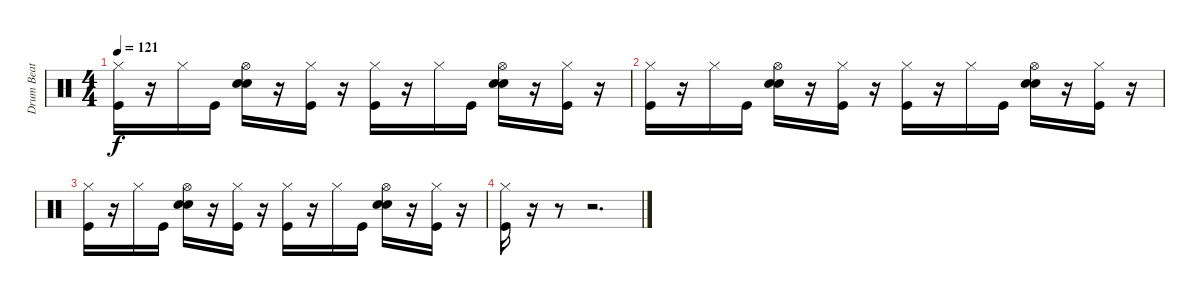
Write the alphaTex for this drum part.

\track ("Drum Beat" "Drum Beat") {instrument percussion}
\staff {score}
\articulation defaults
\ts (4 4)
\tempo 121
\clef neutral
\ks c
("Hi-Hat (closed)" "Kick (hit)").16{dy f} r.16 "Hi-Hat (closed)".16 "Kick (hit)".16 ("Hi-Hat (open)" "Snare (hit) 2" "Hand Clap (hit)").16 r.16 ("Hi-Hat (closed)" "Kick (hit)").16 r.16 ("Hi-Hat (closed)" "Kick (hit)").16 r.16 "Hi-Hat (closed)".16 "Kick (hit)".16 ("Hi-Hat (open)" "Snare (hit) 2" "Hand Clap (hit)").16 r.16 ("Hi-Hat (closed)" "Kick (hit)").16 r.16 |
("Hi-Hat (closed)" "Kick (hit)").16 r.16 "Hi-Hat (closed)".16 "Kick (hit)".16 ("Hi-Hat (open)" "Snare (hit) 2" "Hand Clap (hit)").16 r.16 ("Hi-Hat (closed)" "Kick (hit)").16 r.16 ("Hi-Hat (closed)" "Kick (hit)").16 r.16 "Hi-Hat (closed)".16 "Kick (hit)".16 ("Hi-Hat (open)" "Snare (hit) 2" "Hand Clap (hit)").16 r.16 ("Hi-Hat (closed)" "Kick (hit)").16 r.16 |
("Hi-Hat (closed)" "Kick (hit)").16 r.16 "Hi-Hat (closed)".16 "Kick (hit)".16 ("Hi-Hat (open)" "Snare (hit) 2" "Hand Clap (hit)").16 r.16 ("Hi-Hat (closed)" "Kick (hit)").16 r.16 ("Hi-Hat (closed)" "Kick (hit)").16 r.16 "Hi-Hat (closed)".16 "Kick (hit)".16 ("Hi-Hat (open)" "Snare (hit) 2" "Hand Clap (hit)").16 r.16 ("Hi-Hat (closed)" "Kick (hit)").16 r.16 |
("Hi-Hat (closed)" "Kick (hit)").16 r.16 r.8 r.2{d}
